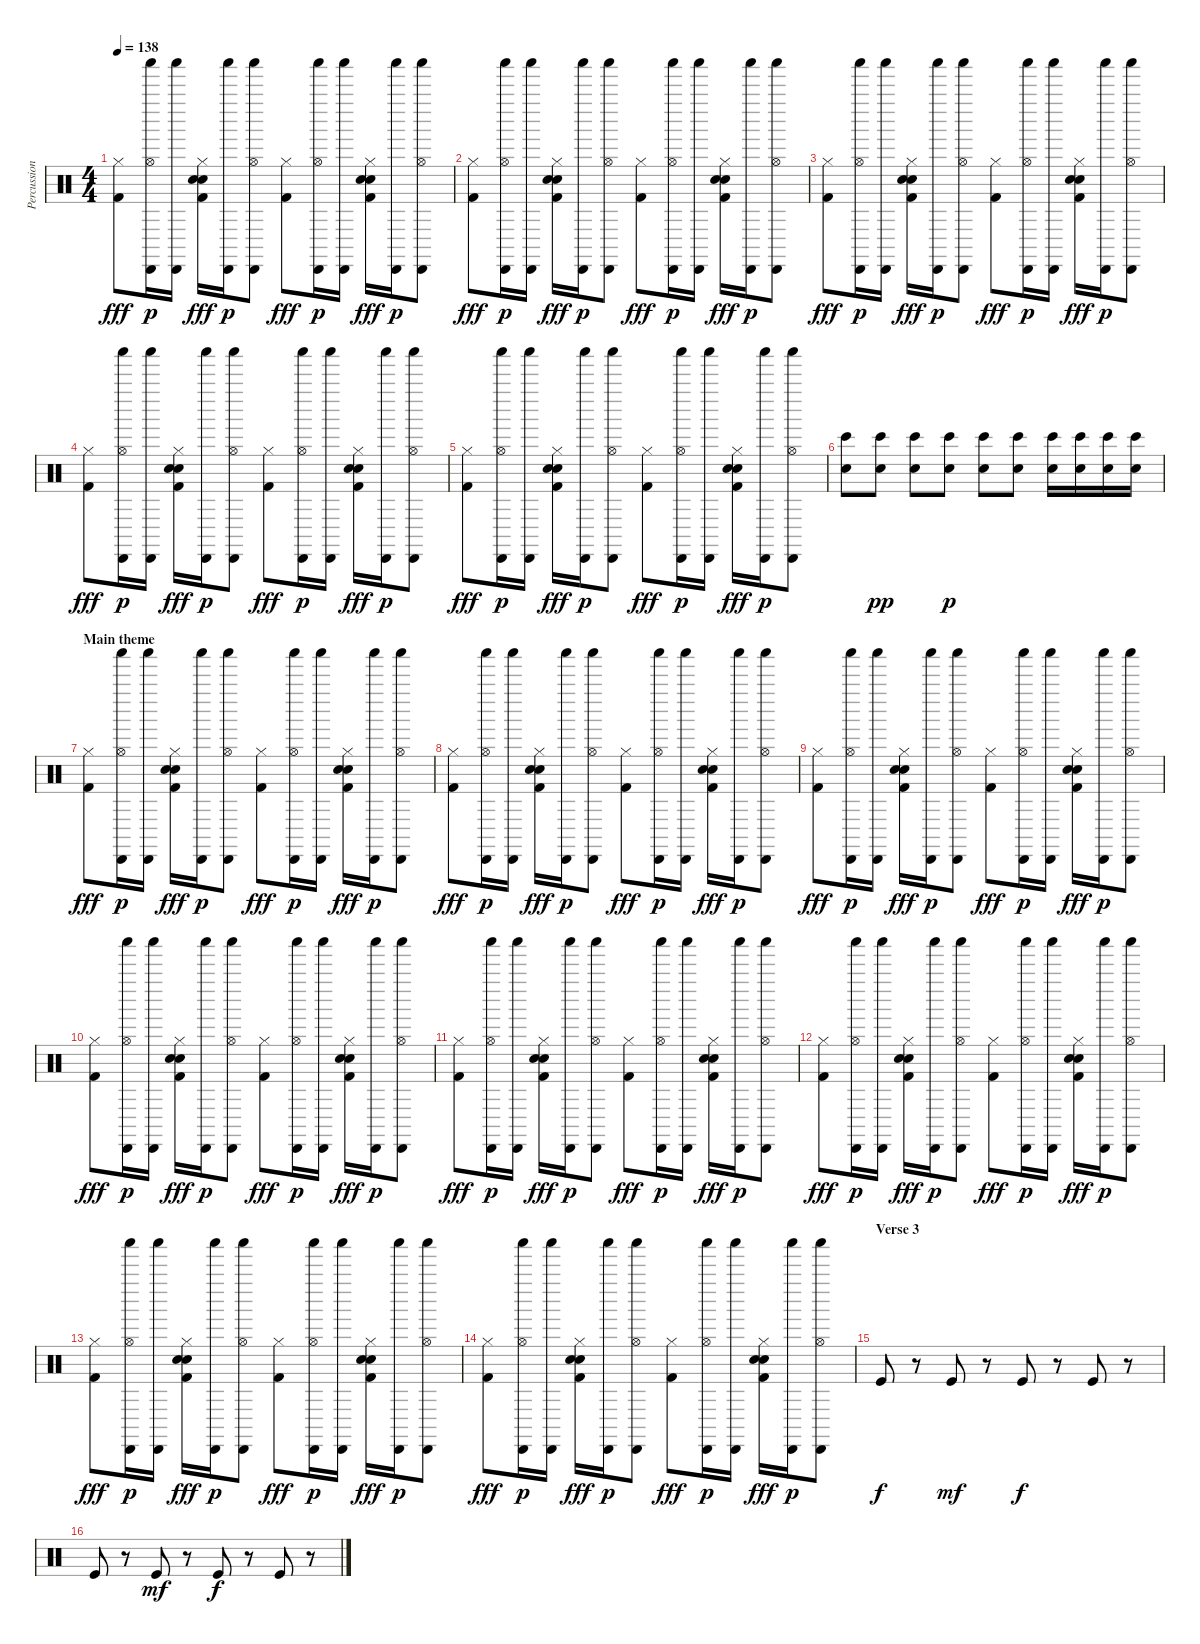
\track ("Percussion" "Percussion") {instrument percussion}
\staff {score}
\articulation defaults
\ts (4 4)
\tempo 138
\clef neutral
\ks c
("Hi-Hat (closed)" "Kick (hit) 2").8{dy fff} ("Cabasa (hit)" "Hi-Hat (open)" "Shaker (hit)").16{dy p} ("Cabasa (hit)" "Shaker (hit)").16 ("Hi-Hat (closed)" "Snare (hit) 2" "Hand Clap (hit)" "Kick (hit) 2").16{dy fff} ("Cabasa (hit)" "Shaker (hit)").16{dy p} ("Cabasa (hit)" "Hi-Hat (open)" "Shaker (hit)").8 ("Hi-Hat (closed)" "Kick (hit) 2").8{dy fff} ("Cabasa (hit)" "Hi-Hat (open)" "Shaker (hit)").16{dy p} ("Cabasa (hit)" "Shaker (hit)").16 ("Hi-Hat (closed)" "Snare (hit) 2" "Hand Clap (hit)" "Kick (hit) 2").16{dy fff} ("Cabasa (hit)" "Shaker (hit)").16{dy p} ("Cabasa (hit)" "Hi-Hat (open)" "Shaker (hit)").8 |
("Hi-Hat (closed)" "Kick (hit) 2").8{dy fff} ("Cabasa (hit)" "Hi-Hat (open)" "Shaker (hit)").16{dy p} ("Cabasa (hit)" "Shaker (hit)").16 ("Hi-Hat (closed)" "Snare (hit) 2" "Hand Clap (hit)" "Kick (hit) 2").16{dy fff} ("Cabasa (hit)" "Shaker (hit)").16{dy p} ("Cabasa (hit)" "Hi-Hat (open)" "Shaker (hit)").8 ("Hi-Hat (closed)" "Kick (hit) 2").8{dy fff} ("Cabasa (hit)" "Hi-Hat (open)" "Shaker (hit)").16{dy p} ("Cabasa (hit)" "Shaker (hit)").16 ("Hi-Hat (closed)" "Snare (hit) 2" "Hand Clap (hit)" "Kick (hit) 2").16{dy fff} ("Cabasa (hit)" "Shaker (hit)").16{dy p} ("Cabasa (hit)" "Hi-Hat (open)" "Shaker (hit)").8 |
("Hi-Hat (closed)" "Kick (hit) 2").8{dy fff} ("Cabasa (hit)" "Hi-Hat (open)" "Shaker (hit)").16{dy p} ("Cabasa (hit)" "Shaker (hit)").16 ("Hi-Hat (closed)" "Snare (hit) 2" "Hand Clap (hit)" "Kick (hit) 2").16{dy fff} ("Cabasa (hit)" "Shaker (hit)").16{dy p} ("Cabasa (hit)" "Hi-Hat (open)" "Shaker (hit)").8 ("Hi-Hat (closed)" "Kick (hit) 2").8{dy fff} ("Cabasa (hit)" "Hi-Hat (open)" "Shaker (hit)").16{dy p} ("Cabasa (hit)" "Shaker (hit)").16 ("Hi-Hat (closed)" "Snare (hit) 2" "Hand Clap (hit)" "Kick (hit) 2").16{dy fff} ("Cabasa (hit)" "Shaker (hit)").16{dy p} ("Cabasa (hit)" "Hi-Hat (open)" "Shaker (hit)").8 |
("Hi-Hat (closed)" "Kick (hit) 2").8{dy fff} ("Cabasa (hit)" "Hi-Hat (open)" "Shaker (hit)").16{dy p} ("Cabasa (hit)" "Shaker (hit)").16 ("Hi-Hat (closed)" "Snare (hit) 2" "Hand Clap (hit)" "Kick (hit) 2").16{dy fff} ("Cabasa (hit)" "Shaker (hit)").16{dy p} ("Cabasa (hit)" "Hi-Hat (open)" "Shaker (hit)").8 ("Hi-Hat (closed)" "Kick (hit) 2").8{dy fff} ("Cabasa (hit)" "Hi-Hat (open)" "Shaker (hit)").16{dy p} ("Cabasa (hit)" "Shaker (hit)").16 ("Hi-Hat (closed)" "Snare (hit) 2" "Hand Clap (hit)" "Kick (hit) 2").16{dy fff} ("Cabasa (hit)" "Shaker (hit)").16{dy p} ("Cabasa (hit)" "Hi-Hat (open)" "Shaker (hit)").8 |
("Hi-Hat (closed)" "Kick (hit) 2").8{dy fff} ("Cabasa (hit)" "Hi-Hat (open)" "Shaker (hit)").16{dy p} ("Cabasa (hit)" "Shaker (hit)").16 ("Hi-Hat (closed)" "Snare (hit) 2" "Hand Clap (hit)" "Kick (hit) 2").16{dy fff} ("Cabasa (hit)" "Shaker (hit)").16{dy p} ("Cabasa (hit)" "Hi-Hat (open)" "Shaker (hit)").8 ("Hi-Hat (closed)" "Kick (hit) 2").8{dy fff} ("Cabasa (hit)" "Hi-Hat (open)" "Shaker (hit)").16{dy p} ("Cabasa (hit)" "Shaker (hit)").16 ("Hi-Hat (closed)" "Snare (hit) 2" "Hand Clap (hit)" "Kick (hit) 2").16{dy fff} ("Cabasa (hit)" "Shaker (hit)").16{dy p} ("Cabasa (hit)" "Hi-Hat (open)" "Shaker (hit)").8 |
("Bongo High (hit)" "Snare (hit) 2").8 ("Bongo High (hit)" "Snare (hit) 2").8{dy pp} ("Bongo High (hit)" "Snare (hit) 2").8 ("Bongo High (hit)" "Snare (hit) 2").8{dy p} ("Bongo High (hit)" "Snare (hit) 2").8 ("Bongo High (hit)" "Snare (hit) 2").8 ("Bongo High (hit)" "Snare (hit) 2").16 ("Bongo High (hit)" "Snare (hit) 2").16 ("Bongo High (hit)" "Snare (hit) 2").16 ("Bongo High (hit)" "Snare (hit) 2").16 |
\section ("" "Main theme")
("Hi-Hat (closed)" "Kick (hit) 2").8{dy fff} ("Cabasa (hit)" "Hi-Hat (open)" "Shaker (hit)").16{dy p} ("Cabasa (hit)" "Shaker (hit)").16 ("Hi-Hat (closed)" "Snare (hit) 2" "Hand Clap (hit)" "Kick (hit) 2").16{dy fff} ("Cabasa (hit)" "Shaker (hit)").16{dy p} ("Cabasa (hit)" "Hi-Hat (open)" "Shaker (hit)").8 ("Hi-Hat (closed)" "Kick (hit) 2").8{dy fff} ("Cabasa (hit)" "Hi-Hat (open)" "Shaker (hit)").16{dy p} ("Cabasa (hit)" "Shaker (hit)").16 ("Hi-Hat (closed)" "Snare (hit) 2" "Hand Clap (hit)" "Kick (hit) 2").16{dy fff} ("Cabasa (hit)" "Shaker (hit)").16{dy p} ("Cabasa (hit)" "Hi-Hat (open)" "Shaker (hit)").8 |
("Hi-Hat (closed)" "Kick (hit) 2").8{dy fff} ("Cabasa (hit)" "Hi-Hat (open)" "Shaker (hit)").16{dy p} ("Cabasa (hit)" "Shaker (hit)").16 ("Hi-Hat (closed)" "Snare (hit) 2" "Hand Clap (hit)" "Kick (hit) 2").16{dy fff} ("Cabasa (hit)" "Shaker (hit)").16{dy p} ("Cabasa (hit)" "Hi-Hat (open)" "Shaker (hit)").8 ("Hi-Hat (closed)" "Kick (hit) 2").8{dy fff} ("Cabasa (hit)" "Hi-Hat (open)" "Shaker (hit)").16{dy p} ("Cabasa (hit)" "Shaker (hit)").16 ("Hi-Hat (closed)" "Snare (hit) 2" "Hand Clap (hit)" "Kick (hit) 2").16{dy fff} ("Cabasa (hit)" "Shaker (hit)").16{dy p} ("Cabasa (hit)" "Hi-Hat (open)" "Shaker (hit)").8 |
("Hi-Hat (closed)" "Kick (hit) 2").8{dy fff} ("Cabasa (hit)" "Hi-Hat (open)" "Shaker (hit)").16{dy p} ("Cabasa (hit)" "Shaker (hit)").16 ("Hi-Hat (closed)" "Snare (hit) 2" "Hand Clap (hit)" "Kick (hit) 2").16{dy fff} ("Cabasa (hit)" "Shaker (hit)").16{dy p} ("Cabasa (hit)" "Hi-Hat (open)" "Shaker (hit)").8 ("Hi-Hat (closed)" "Kick (hit) 2").8{dy fff} ("Cabasa (hit)" "Hi-Hat (open)" "Shaker (hit)").16{dy p} ("Cabasa (hit)" "Shaker (hit)").16 ("Hi-Hat (closed)" "Snare (hit) 2" "Hand Clap (hit)" "Kick (hit) 2").16{dy fff} ("Cabasa (hit)" "Shaker (hit)").16{dy p} ("Cabasa (hit)" "Hi-Hat (open)" "Shaker (hit)").8 |
("Hi-Hat (closed)" "Kick (hit) 2").8{dy fff} ("Cabasa (hit)" "Hi-Hat (open)" "Shaker (hit)").16{dy p} ("Cabasa (hit)" "Shaker (hit)").16 ("Hi-Hat (closed)" "Snare (hit) 2" "Hand Clap (hit)" "Kick (hit) 2").16{dy fff} ("Cabasa (hit)" "Shaker (hit)").16{dy p} ("Cabasa (hit)" "Hi-Hat (open)" "Shaker (hit)").8 ("Hi-Hat (closed)" "Kick (hit) 2").8{dy fff} ("Cabasa (hit)" "Hi-Hat (open)" "Shaker (hit)").16{dy p} ("Cabasa (hit)" "Shaker (hit)").16 ("Hi-Hat (closed)" "Snare (hit) 2" "Hand Clap (hit)" "Kick (hit) 2").16{dy fff} ("Cabasa (hit)" "Shaker (hit)").16{dy p} ("Cabasa (hit)" "Hi-Hat (open)" "Shaker (hit)").8 |
("Hi-Hat (closed)" "Kick (hit) 2").8{dy fff} ("Cabasa (hit)" "Hi-Hat (open)" "Shaker (hit)").16{dy p} ("Cabasa (hit)" "Shaker (hit)").16 ("Hi-Hat (closed)" "Snare (hit) 2" "Hand Clap (hit)" "Kick (hit) 2").16{dy fff} ("Cabasa (hit)" "Shaker (hit)").16{dy p} ("Cabasa (hit)" "Hi-Hat (open)" "Shaker (hit)").8 ("Hi-Hat (closed)" "Kick (hit) 2").8{dy fff} ("Cabasa (hit)" "Hi-Hat (open)" "Shaker (hit)").16{dy p} ("Cabasa (hit)" "Shaker (hit)").16 ("Hi-Hat (closed)" "Snare (hit) 2" "Hand Clap (hit)" "Kick (hit) 2").16{dy fff} ("Cabasa (hit)" "Shaker (hit)").16{dy p} ("Cabasa (hit)" "Hi-Hat (open)" "Shaker (hit)").8 |
("Hi-Hat (closed)" "Kick (hit) 2").8{dy fff} ("Cabasa (hit)" "Hi-Hat (open)" "Shaker (hit)").16{dy p} ("Cabasa (hit)" "Shaker (hit)").16 ("Hi-Hat (closed)" "Snare (hit) 2" "Hand Clap (hit)" "Kick (hit) 2").16{dy fff} ("Cabasa (hit)" "Shaker (hit)").16{dy p} ("Cabasa (hit)" "Hi-Hat (open)" "Shaker (hit)").8 ("Hi-Hat (closed)" "Kick (hit) 2").8{dy fff} ("Cabasa (hit)" "Hi-Hat (open)" "Shaker (hit)").16{dy p} ("Cabasa (hit)" "Shaker (hit)").16 ("Hi-Hat (closed)" "Snare (hit) 2" "Hand Clap (hit)" "Kick (hit) 2").16{dy fff} ("Cabasa (hit)" "Shaker (hit)").16{dy p} ("Cabasa (hit)" "Hi-Hat (open)" "Shaker (hit)").8 |
("Hi-Hat (closed)" "Kick (hit) 2").8{dy fff} ("Cabasa (hit)" "Hi-Hat (open)" "Shaker (hit)").16{dy p} ("Cabasa (hit)" "Shaker (hit)").16 ("Hi-Hat (closed)" "Snare (hit) 2" "Hand Clap (hit)" "Kick (hit) 2").16{dy fff} ("Cabasa (hit)" "Shaker (hit)").16{dy p} ("Cabasa (hit)" "Hi-Hat (open)" "Shaker (hit)").8 ("Hi-Hat (closed)" "Kick (hit) 2").8{dy fff} ("Cabasa (hit)" "Hi-Hat (open)" "Shaker (hit)").16{dy p} ("Cabasa (hit)" "Shaker (hit)").16 ("Hi-Hat (closed)" "Snare (hit) 2" "Hand Clap (hit)" "Kick (hit) 2").16{dy fff} ("Cabasa (hit)" "Shaker (hit)").16{dy p} ("Cabasa (hit)" "Hi-Hat (open)" "Shaker (hit)").8 |
("Hi-Hat (closed)" "Kick (hit) 2").8{dy fff} ("Cabasa (hit)" "Hi-Hat (open)" "Shaker (hit)").16{dy p} ("Cabasa (hit)" "Shaker (hit)").16 ("Hi-Hat (closed)" "Snare (hit) 2" "Hand Clap (hit)" "Kick (hit) 2").16{dy fff} ("Cabasa (hit)" "Shaker (hit)").16{dy p} ("Cabasa (hit)" "Hi-Hat (open)" "Shaker (hit)").8 ("Hi-Hat (closed)" "Kick (hit) 2").8{dy fff} ("Cabasa (hit)" "Hi-Hat (open)" "Shaker (hit)").16{dy p} ("Cabasa (hit)" "Shaker (hit)").16 ("Hi-Hat (closed)" "Snare (hit) 2" "Hand Clap (hit)" "Kick (hit) 2").16{dy fff} ("Cabasa (hit)" "Shaker (hit)").16{dy p} ("Cabasa (hit)" "Hi-Hat (open)" "Shaker (hit)").8 |
\section ("" "Verse 3")
"Kick (hit)".8{dy f} r.8 "Kick (hit)".8{dy mf} r.8 "Kick (hit)".8{dy f} r.8 "Kick (hit)".8 r.8 |
"Kick (hit)".8 r.8 "Kick (hit)".8{dy mf} r.8 "Kick (hit)".8{dy f} r.8 "Kick (hit)".8 r.8
